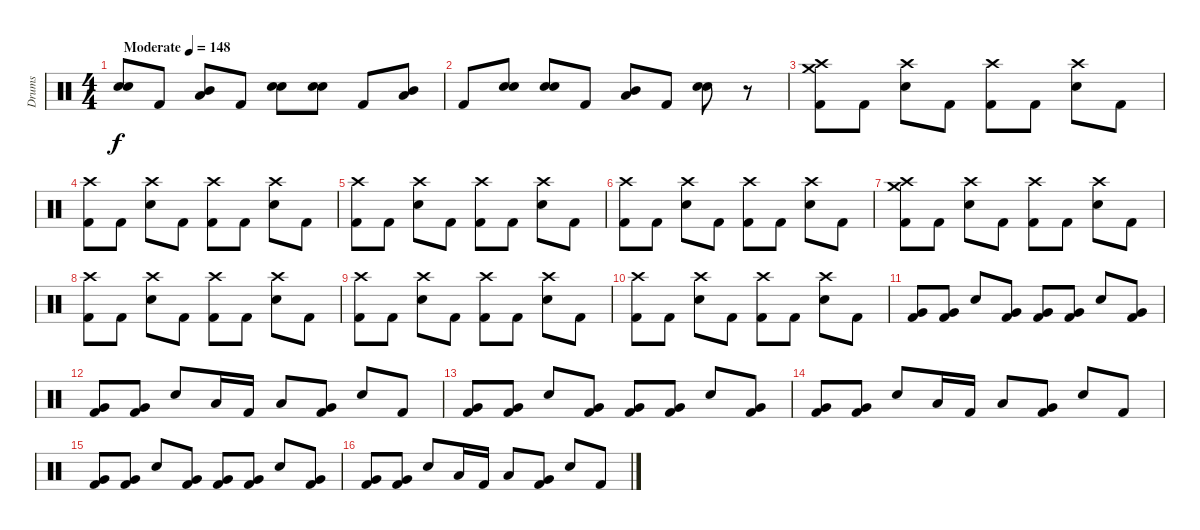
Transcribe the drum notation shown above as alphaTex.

\track ("Drums" "Drums") {instrument percussion}
\staff {score}
\articulation defaults
\ts (4 4)
\tempo (148 "Moderate")
\clef neutral
\ks c
("Electric Snare (hit)" "Snare (hit) 2").8{dy f} "Kick (hit) 2".8 ("Low Tom (hit)" "Mid Tom (hit)").8 "Kick (hit) 2".8 ("Electric Snare (hit)" "Snare (hit) 2").8 ("Electric Snare (hit)" "Snare (hit) 2").8 "Kick (hit) 2".8 ("Low Tom (hit)" "Mid Tom (hit)").8 |
"Kick (hit) 2".8 ("Electric Snare (hit)" "Snare (hit) 2").8 ("Electric Snare (hit)" "Snare (hit) 2").8 "Kick (hit) 2".8 ("Low Tom (hit)" "Mid Tom (hit)").8 "Kick (hit) 2".8 ("Electric Snare (hit)" "Snare (hit) 2").8 r.8 |
("Crash medium (hit)" "Crash high (hit)" "Kick (hit) 2").8 "Kick (hit) 2".8 ("Crash high (hit)" "Snare (hit) 2").8 "Kick (hit) 2".8 ("Crash high (hit)" "Kick (hit) 2").8 "Kick (hit) 2".8 ("Crash high (hit)" "Snare (hit) 2").8 "Kick (hit) 2".8 |
("Crash high (hit)" "Kick (hit) 2").8 "Kick (hit) 2".8 ("Crash high (hit)" "Snare (hit) 2").8 "Kick (hit) 2".8 ("Crash high (hit)" "Kick (hit) 2").8 "Kick (hit) 2".8 ("Crash high (hit)" "Snare (hit) 2").8 "Kick (hit) 2".8 |
("Crash high (hit)" "Kick (hit) 2").8 "Kick (hit) 2".8 ("Crash high (hit)" "Snare (hit) 2").8 "Kick (hit) 2".8 ("Crash high (hit)" "Kick (hit) 2").8 "Kick (hit) 2".8 ("Crash high (hit)" "Snare (hit) 2").8 "Kick (hit) 2".8 |
("Crash high (hit)" "Kick (hit) 2").8 "Kick (hit) 2".8 ("Crash high (hit)" "Snare (hit) 2").8 "Kick (hit) 2".8 ("Crash high (hit)" "Kick (hit) 2").8 "Kick (hit) 2".8 ("Crash high (hit)" "Snare (hit) 2").8 "Kick (hit) 2".8 |
("Crash medium (hit)" "Crash high (hit)" "Kick (hit) 2").8 "Kick (hit) 2".8 ("Crash high (hit)" "Snare (hit) 2").8 "Kick (hit) 2".8 ("Crash high (hit)" "Kick (hit) 2").8 "Kick (hit) 2".8 ("Crash high (hit)" "Snare (hit) 2").8 "Kick (hit) 2".8 |
("Crash high (hit)" "Kick (hit) 2").8 "Kick (hit) 2".8 ("Crash high (hit)" "Snare (hit) 2").8 "Kick (hit) 2".8 ("Crash high (hit)" "Kick (hit) 2").8 "Kick (hit) 2".8 ("Crash high (hit)" "Snare (hit) 2").8 "Kick (hit) 2".8 |
("Crash high (hit)" "Kick (hit) 2").8 "Kick (hit) 2".8 ("Crash high (hit)" "Snare (hit) 2").8 "Kick (hit) 2".8 ("Crash high (hit)" "Kick (hit) 2").8 "Kick (hit) 2".8 ("Crash high (hit)" "Snare (hit) 2").8 "Kick (hit) 2".8 |
("Crash high (hit)" "Kick (hit) 2").8 "Kick (hit) 2".8 ("Crash high (hit)" "Snare (hit) 2").8 "Kick (hit) 2".8 ("Crash high (hit)" "Kick (hit) 2").8 "Kick (hit) 2".8 ("Crash high (hit)" "Snare (hit) 2").8 "Kick (hit) 2".8 |
("Very Low Tom (hit)" "Kick (hit) 2").8 ("Very Low Tom (hit)" "Kick (hit) 2").8 "Snare (hit) 2".8 ("Very Low Tom (hit)" "Kick (hit) 2").8 ("Very Low Tom (hit)" "Kick (hit) 2").8 ("Very Low Tom (hit)" "Kick (hit) 2").8 "Snare (hit) 2".8 ("Very Low Tom (hit)" "Kick (hit) 2").8 |
("Very Low Tom (hit)" "Kick (hit) 2").8 ("Very Low Tom (hit)" "Kick (hit) 2").8 "Snare (hit) 2".8 "Low Tom (hit)".16 "Kick (hit) 2".16 "Low Tom (hit)".8 ("Very Low Tom (hit)" "Kick (hit) 2").8 "Snare (hit) 2".8 "Kick (hit) 2".8 |
("Very Low Tom (hit)" "Kick (hit) 2").8 ("Very Low Tom (hit)" "Kick (hit) 2").8 "Snare (hit) 2".8 ("Very Low Tom (hit)" "Kick (hit) 2").8 ("Very Low Tom (hit)" "Kick (hit) 2").8 ("Very Low Tom (hit)" "Kick (hit) 2").8 "Snare (hit) 2".8 ("Very Low Tom (hit)" "Kick (hit) 2").8 |
("Very Low Tom (hit)" "Kick (hit) 2").8 ("Very Low Tom (hit)" "Kick (hit) 2").8 "Snare (hit) 2".8 "Low Tom (hit)".16 "Kick (hit) 2".16 "Low Tom (hit)".8 ("Very Low Tom (hit)" "Kick (hit) 2").8 "Snare (hit) 2".8 "Kick (hit) 2".8 |
("Very Low Tom (hit)" "Kick (hit) 2").8 ("Very Low Tom (hit)" "Kick (hit) 2").8 "Snare (hit) 2".8 ("Very Low Tom (hit)" "Kick (hit) 2").8 ("Very Low Tom (hit)" "Kick (hit) 2").8 ("Very Low Tom (hit)" "Kick (hit) 2").8 "Snare (hit) 2".8 ("Very Low Tom (hit)" "Kick (hit) 2").8 |
("Very Low Tom (hit)" "Kick (hit) 2").8 ("Very Low Tom (hit)" "Kick (hit) 2").8 "Snare (hit) 2".8 "Low Tom (hit)".16 "Kick (hit) 2".16 "Low Tom (hit)".8 ("Very Low Tom (hit)" "Kick (hit) 2").8 "Snare (hit) 2".8 "Kick (hit) 2".8
